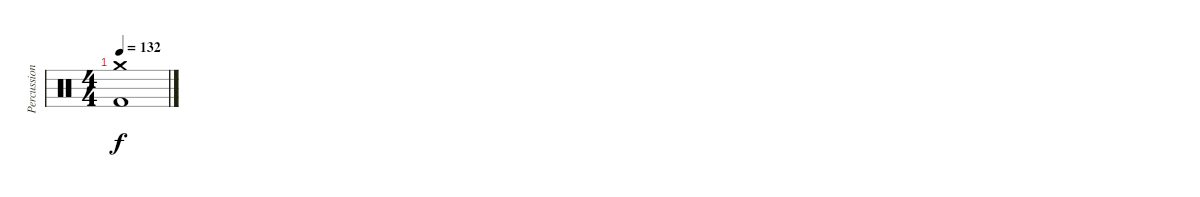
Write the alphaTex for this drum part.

\track ("Percussioni" "Percussion") {instrument percussion}
\staff {score}
\articulation defaults
\ts (4 4)
\tempo 132
\clef neutral
\ks c
("Kick (hit) 2" "Crash medium (hit)").1{dy f}
